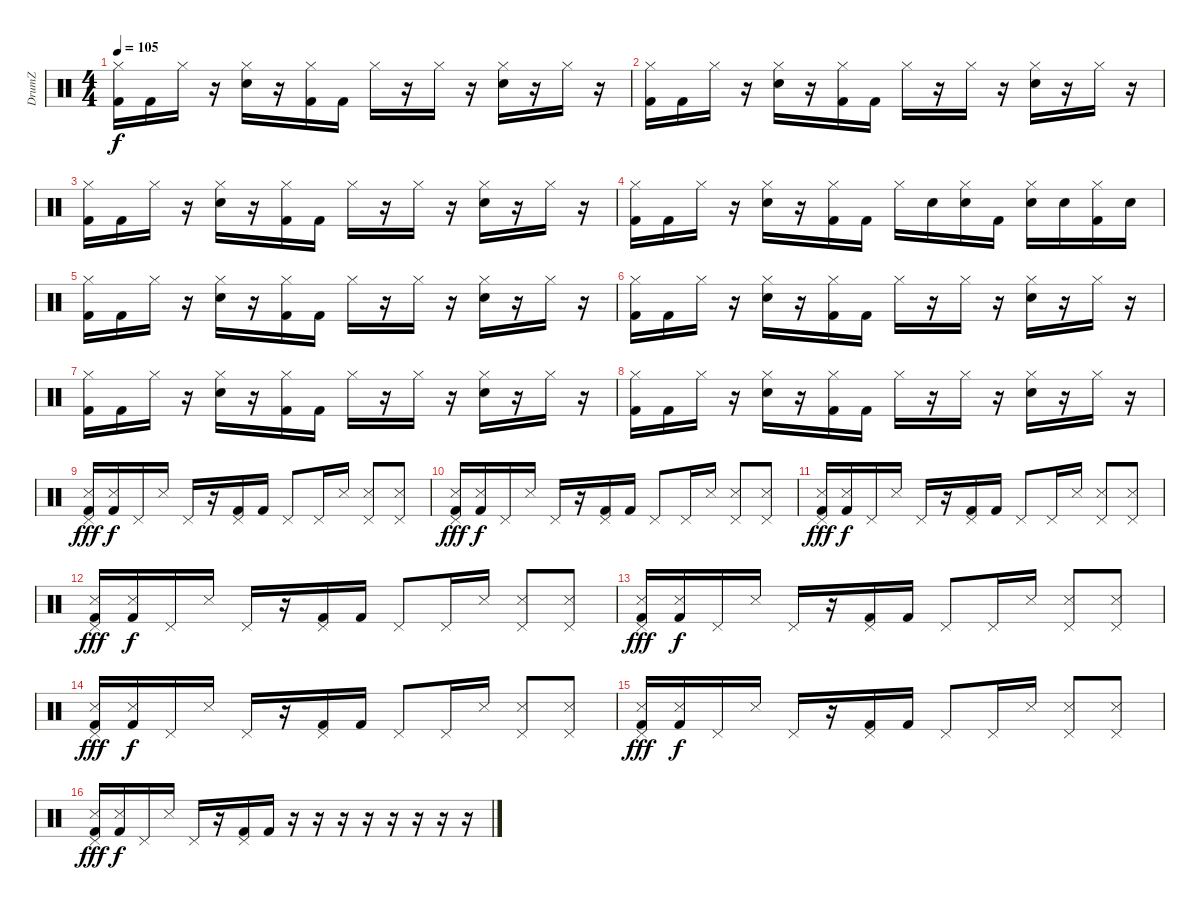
\track ("DrumZ" "DrumZ") {instrument percussion}
\staff {score}
\articulation defaults
\ts (4 4)
\tempo 105
\clef neutral
\ks c
("Hi-Hat (closed)" "Kick (hit) 2").16{dy f} "Kick (hit) 2".16 "Hi-Hat (closed)".16 r.16 ("Hi-Hat (closed)" "Electric Snare (hit)").16 r.16 ("Hi-Hat (closed)" "Kick (hit) 2").16 "Kick (hit) 2".16 "Hi-Hat (closed)".16 r.16 "Hi-Hat (closed)".16 r.16 ("Hi-Hat (closed)" "Electric Snare (hit)").16 r.16 "Hi-Hat (closed)".16 r.16 |
("Hi-Hat (closed)" "Kick (hit) 2").16 "Kick (hit) 2".16 "Hi-Hat (closed)".16 r.16 ("Hi-Hat (closed)" "Electric Snare (hit)").16 r.16 ("Hi-Hat (closed)" "Kick (hit) 2").16 "Kick (hit) 2".16 "Hi-Hat (closed)".16 r.16 "Hi-Hat (closed)".16 r.16 ("Hi-Hat (closed)" "Electric Snare (hit)").16 r.16 "Hi-Hat (closed)".16 r.16 |
("Hi-Hat (closed)" "Kick (hit) 2").16 "Kick (hit) 2".16 "Hi-Hat (closed)".16 r.16 ("Hi-Hat (closed)" "Electric Snare (hit)").16 r.16 ("Hi-Hat (closed)" "Kick (hit) 2").16 "Kick (hit) 2".16 "Hi-Hat (closed)".16 r.16 "Hi-Hat (closed)".16 r.16 ("Hi-Hat (closed)" "Electric Snare (hit)").16 r.16 "Hi-Hat (closed)".16 r.16 |
("Hi-Hat (closed)" "Kick (hit) 2").16 "Kick (hit) 2".16 "Hi-Hat (closed)".16 r.16 ("Hi-Hat (closed)" "Electric Snare (hit)").16 r.16 ("Hi-Hat (closed)" "Kick (hit) 2").16 "Kick (hit) 2".16 "Hi-Hat (closed)".16 "Electric Snare (hit)".16 ("Hi-Hat (closed)" "Electric Snare (hit)").16 "Kick (hit) 2".16 ("Hi-Hat (closed)" "Electric Snare (hit)").16 "Electric Snare (hit)".16 ("Hi-Hat (closed)" "Kick (hit) 2").16 "Electric Snare (hit)".16 |
("Hi-Hat (closed)" "Kick (hit) 2").16 "Kick (hit) 2".16 "Hi-Hat (closed)".16 r.16 ("Hi-Hat (closed)" "Electric Snare (hit)").16 r.16 ("Hi-Hat (closed)" "Kick (hit) 2").16 "Kick (hit) 2".16 "Hi-Hat (closed)".16 r.16 "Hi-Hat (closed)".16 r.16 ("Hi-Hat (closed)" "Electric Snare (hit)").16 r.16 "Hi-Hat (closed)".16 r.16 |
("Hi-Hat (closed)" "Kick (hit) 2").16 "Kick (hit) 2".16 "Hi-Hat (closed)".16 r.16 ("Hi-Hat (closed)" "Electric Snare (hit)").16 r.16 ("Hi-Hat (closed)" "Kick (hit) 2").16 "Kick (hit) 2".16 "Hi-Hat (closed)".16 r.16 "Hi-Hat (closed)".16 r.16 ("Hi-Hat (closed)" "Electric Snare (hit)").16 r.16 "Hi-Hat (closed)".16 r.16 |
("Hi-Hat (closed)" "Kick (hit) 2").16 "Kick (hit) 2".16 "Hi-Hat (closed)".16 r.16 ("Hi-Hat (closed)" "Electric Snare (hit)").16 r.16 ("Hi-Hat (closed)" "Kick (hit) 2").16 "Kick (hit) 2".16 "Hi-Hat (closed)".16 r.16 "Hi-Hat (closed)".16 r.16 ("Hi-Hat (closed)" "Electric Snare (hit)").16 r.16 "Hi-Hat (closed)".16 r.16 |
("Hi-Hat (closed)" "Kick (hit) 2").16 "Kick (hit) 2".16 "Hi-Hat (closed)".16 r.16 ("Hi-Hat (closed)" "Electric Snare (hit)").16 r.16 ("Hi-Hat (closed)" "Kick (hit) 2").16 "Kick (hit) 2".16 "Hi-Hat (closed)".16 r.16 "Hi-Hat (closed)".16 r.16 ("Hi-Hat (closed)" "Electric Snare (hit)").16 r.16 "Hi-Hat (closed)".16 r.16 |
("Pedal Hi-Hat (hit)" "Metronome (hit)" "Kick (hit) 2").16{dy fff} ("Metronome (hit)" "Kick (hit) 2").16{dy f} "Pedal Hi-Hat (hit)".16 "Metronome (hit)".16 "Pedal Hi-Hat (hit)".16 r.16 ("Pedal Hi-Hat (hit)" "Kick (hit) 2").16 "Kick (hit) 2".16 "Pedal Hi-Hat (hit)".8 "Pedal Hi-Hat (hit)".16 "Metronome (hit)".16 ("Pedal Hi-Hat (hit)" "Metronome (hit)").8 ("Pedal Hi-Hat (hit)" "Metronome (hit)").8 |
("Pedal Hi-Hat (hit)" "Metronome (hit)" "Kick (hit) 2").16{dy fff} ("Metronome (hit)" "Kick (hit) 2").16{dy f} "Pedal Hi-Hat (hit)".16 "Metronome (hit)".16 "Pedal Hi-Hat (hit)".16 r.16 ("Pedal Hi-Hat (hit)" "Kick (hit) 2").16 "Kick (hit) 2".16 "Pedal Hi-Hat (hit)".8 "Pedal Hi-Hat (hit)".16 "Metronome (hit)".16 ("Pedal Hi-Hat (hit)" "Metronome (hit)").8 ("Pedal Hi-Hat (hit)" "Metronome (hit)").8 |
("Pedal Hi-Hat (hit)" "Metronome (hit)" "Kick (hit) 2").16{dy fff} ("Metronome (hit)" "Kick (hit) 2").16{dy f} "Pedal Hi-Hat (hit)".16 "Metronome (hit)".16 "Pedal Hi-Hat (hit)".16 r.16 ("Pedal Hi-Hat (hit)" "Kick (hit) 2").16 "Kick (hit) 2".16 "Pedal Hi-Hat (hit)".8 "Pedal Hi-Hat (hit)".16 "Metronome (hit)".16 ("Pedal Hi-Hat (hit)" "Metronome (hit)").8 ("Pedal Hi-Hat (hit)" "Metronome (hit)").8 |
("Pedal Hi-Hat (hit)" "Metronome (hit)" "Kick (hit) 2").16{dy fff} ("Metronome (hit)" "Kick (hit) 2").16{dy f} "Pedal Hi-Hat (hit)".16 "Metronome (hit)".16 "Pedal Hi-Hat (hit)".16 r.16 ("Pedal Hi-Hat (hit)" "Kick (hit) 2").16 "Kick (hit) 2".16 "Pedal Hi-Hat (hit)".8 "Pedal Hi-Hat (hit)".16 "Metronome (hit)".16 ("Pedal Hi-Hat (hit)" "Metronome (hit)").8 ("Pedal Hi-Hat (hit)" "Metronome (hit)").8 |
("Pedal Hi-Hat (hit)" "Metronome (hit)" "Kick (hit) 2").16{dy fff} ("Metronome (hit)" "Kick (hit) 2").16{dy f} "Pedal Hi-Hat (hit)".16 "Metronome (hit)".16 "Pedal Hi-Hat (hit)".16 r.16 ("Pedal Hi-Hat (hit)" "Kick (hit) 2").16 "Kick (hit) 2".16 "Pedal Hi-Hat (hit)".8 "Pedal Hi-Hat (hit)".16 "Metronome (hit)".16 ("Pedal Hi-Hat (hit)" "Metronome (hit)").8 ("Pedal Hi-Hat (hit)" "Metronome (hit)").8 |
("Pedal Hi-Hat (hit)" "Metronome (hit)" "Kick (hit) 2").16{dy fff} ("Metronome (hit)" "Kick (hit) 2").16{dy f} "Pedal Hi-Hat (hit)".16 "Metronome (hit)".16 "Pedal Hi-Hat (hit)".16 r.16 ("Pedal Hi-Hat (hit)" "Kick (hit) 2").16 "Kick (hit) 2".16 "Pedal Hi-Hat (hit)".8 "Pedal Hi-Hat (hit)".16 "Metronome (hit)".16 ("Pedal Hi-Hat (hit)" "Metronome (hit)").8 ("Pedal Hi-Hat (hit)" "Metronome (hit)").8 |
("Pedal Hi-Hat (hit)" "Metronome (hit)" "Kick (hit) 2").16{dy fff} ("Metronome (hit)" "Kick (hit) 2").16{dy f} "Pedal Hi-Hat (hit)".16 "Metronome (hit)".16 "Pedal Hi-Hat (hit)".16 r.16 ("Pedal Hi-Hat (hit)" "Kick (hit) 2").16 "Kick (hit) 2".16 "Pedal Hi-Hat (hit)".8 "Pedal Hi-Hat (hit)".16 "Metronome (hit)".16 ("Pedal Hi-Hat (hit)" "Metronome (hit)").8 ("Pedal Hi-Hat (hit)" "Metronome (hit)").8 |
("Pedal Hi-Hat (hit)" "Metronome (hit)" "Kick (hit) 2").16{dy fff} ("Metronome (hit)" "Kick (hit) 2").16{dy f} "Pedal Hi-Hat (hit)".16 "Metronome (hit)".16 "Pedal Hi-Hat (hit)".16 r.16 ("Pedal Hi-Hat (hit)" "Kick (hit) 2").16 "Kick (hit) 2".16 r.16 r.16 r.16 r.16 r.16 r.16 r.16 r.16
